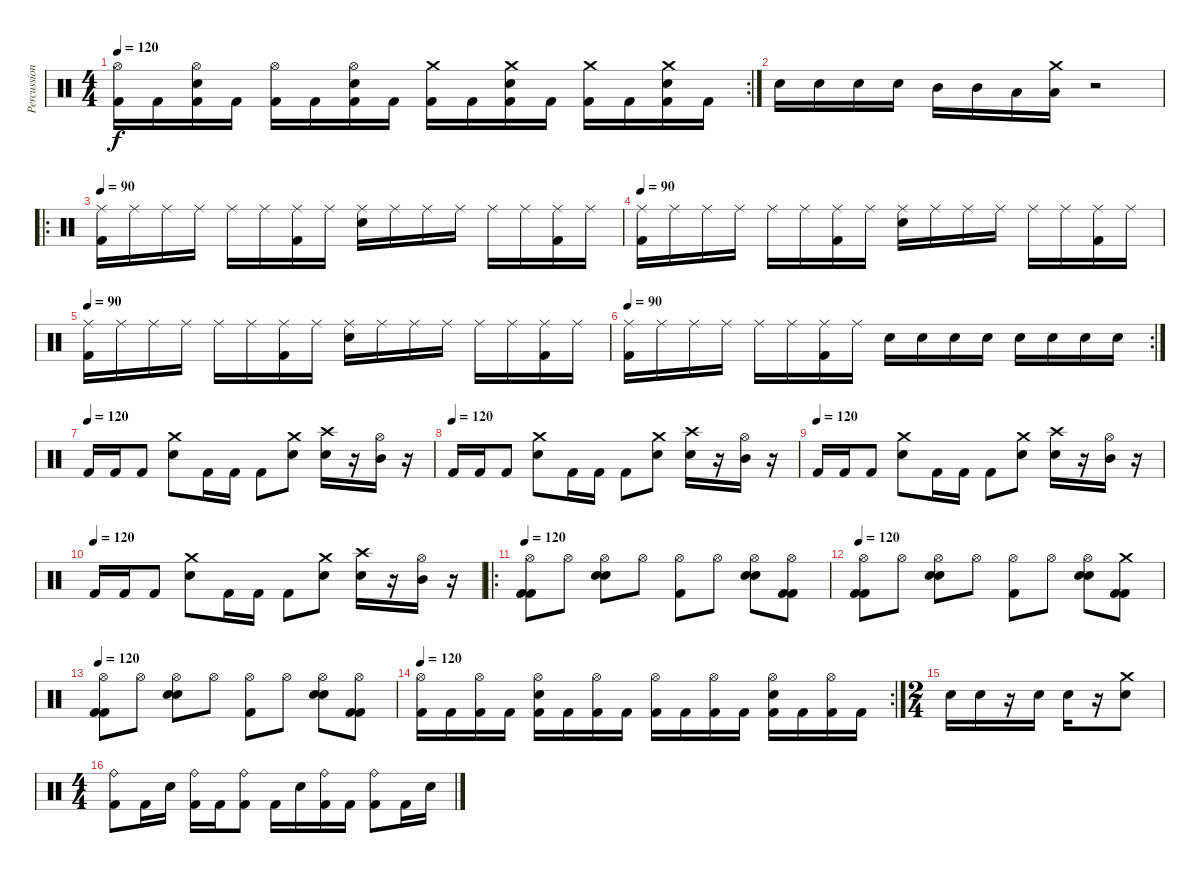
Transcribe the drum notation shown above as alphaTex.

\track ("Percussions" "Percussion") {instrument percussion}
\staff {score}
\articulation defaults
\rc 2
\ts (4 4)
\tempo 120
\clef neutral
\ks c
("Kick (hit) 2" "Hi-Hat (open)").16{dy f} "Kick (hit) 2".16 ("Kick (hit) 2" "Electric Snare (hit)" "Hi-Hat (open)").16 "Kick (hit) 2".16 ("Kick (hit) 2" "Hi-Hat (open)").16 "Kick (hit) 2".16 ("Kick (hit) 2" "Electric Snare (hit)" "Hi-Hat (open)").16 "Kick (hit) 2".16 ("Kick (hit) 2" "Crash medium (hit)").16 "Kick (hit) 2".16 ("Kick (hit) 2" "Electric Snare (hit)" "Crash medium (hit)").16 "Kick (hit) 2".16 ("Kick (hit) 2" "Crash medium (hit)").16 "Kick (hit) 2".16 ("Kick (hit) 2" "Electric Snare (hit)" "Crash medium (hit)").16 "Kick (hit) 2".16 |
"Electric Snare (hit)".16 "Electric Snare (hit)".16 "Snare (hit) 2".16 "Snare (hit) 2".16 "Mid Tom (hit)".16 "Mid Tom (hit)".16 "Low Tom (hit)".16 ("Low Tom (hit)" "Crash medium (hit)").16 r.2 |
\ro
\tempo 90
("Ride (middle)" "Kick (hit) 2").16 "Ride (middle)".16 "Ride (middle)".16 "Ride (middle)".16 "Ride (middle)".16 "Ride (middle)".16 ("Ride (middle)" "Kick (hit) 2").16 "Ride (middle)".16 ("Ride (middle)" "Electric Snare (hit)").16 "Ride (middle)".16 "Ride (middle)".16 "Ride (middle)".16 "Ride (middle)".16 "Ride (middle)".16 ("Ride (middle)" "Kick (hit) 2").16 "Ride (middle)".16 |
\tempo 90
("Ride (middle)" "Kick (hit) 2").16 "Ride (middle)".16 "Ride (middle)".16 "Ride (middle)".16 "Ride (middle)".16 "Ride (middle)".16 ("Ride (middle)" "Kick (hit) 2").16 "Ride (middle)".16 ("Ride (middle)" "Electric Snare (hit)").16 "Ride (middle)".16 "Ride (middle)".16 "Ride (middle)".16 "Ride (middle)".16 "Ride (middle)".16 ("Ride (middle)" "Kick (hit) 2").16 "Ride (middle)".16 |
\tempo 90
("Ride (middle)" "Kick (hit) 2").16 "Ride (middle)".16 "Ride (middle)".16 "Ride (middle)".16 "Ride (middle)".16 "Ride (middle)".16 ("Ride (middle)" "Kick (hit) 2").16 "Ride (middle)".16 ("Ride (middle)" "Electric Snare (hit)").16 "Ride (middle)".16 "Ride (middle)".16 "Ride (middle)".16 "Ride (middle)".16 "Ride (middle)".16 ("Ride (middle)" "Kick (hit) 2").16 "Ride (middle)".16 |
\rc 2
\tempo 90
("Ride (middle)" "Kick (hit) 2").16 "Ride (middle)".16 "Ride (middle)".16 "Ride (middle)".16 "Ride (middle)".16 "Ride (middle)".16 ("Ride (middle)" "Kick (hit) 2").16 "Ride (middle)".16 "Electric Snare (hit)".16 "Electric Snare (hit)".16 "Snare (hit) 2".16 "Snare (hit) 2".16 "Electric Snare (hit)".16 "Electric Snare (hit)".16 "Snare (hit) 2".16 "Snare (hit) 2".16 |
\tempo (120)
"Kick (hit) 2".16 "Kick (hit) 2".16 "Kick (hit) 2".8 ("Electric Snare (hit)" "Crash medium (hit)").8 "Kick (hit) 2".16 "Kick (hit) 2".16 "Kick (hit) 2".8 ("Electric Snare (hit)" "Crash medium (hit)").8 ("Snare (hit) 2" "Crash high (hit)").16 r.16 ("Mid Tom (hit)" "Hi-Hat (open)").16 r.16 |
\tempo (120)
"Kick (hit) 2".16 "Kick (hit) 2".16 "Kick (hit) 2".8 ("Electric Snare (hit)" "Crash medium (hit)").8 "Kick (hit) 2".16 "Kick (hit) 2".16 "Kick (hit) 2".8 ("Electric Snare (hit)" "Crash medium (hit)").8 ("Snare (hit) 2" "Crash high (hit)").16 r.16 ("Mid Tom (hit)" "Hi-Hat (open)").16 r.16 |
\tempo (120)
"Kick (hit) 2".16 "Kick (hit) 2".16 "Kick (hit) 2".8 ("Electric Snare (hit)" "Crash medium (hit)").8 "Kick (hit) 2".16 "Kick (hit) 2".16 "Kick (hit) 2".8 ("Electric Snare (hit)" "Crash medium (hit)").8 ("Snare (hit) 2" "Crash high (hit)").16 r.16 ("Mid Tom (hit)" "Hi-Hat (open)").16 r.16 |
\tempo (120)
"Kick (hit) 2".16 "Kick (hit) 2".16 "Kick (hit) 2".8 ("Electric Snare (hit)" "Crash medium (hit)").8 "Kick (hit) 2".16 "Kick (hit) 2".16 "Kick (hit) 2".8 ("Electric Snare (hit)" "Crash medium (hit)").8 ("Snare (hit) 2" "Crash high (hit)").16 r.16 ("Mid Tom (hit)" "Hi-Hat (open)").16 r.16 |
\ro
\tempo 120
("Hi-Hat (open)" "Kick (hit) 2" "Kick (hit) 2").8 "Hi-Hat (open)".8 ("Hi-Hat (open)" "Electric Snare (hit)" "Electric Snare (hit)").8 "Hi-Hat (open)".8 ("Hi-Hat (open)" "Kick (hit) 2").8 "Hi-Hat (open)".8 ("Hi-Hat (open)" "Electric Snare (hit)" "Electric Snare (hit)").8 ("Hi-Hat (open)" "Kick (hit) 2" "Kick (hit) 2").8 |
\tempo 120
("Hi-Hat (open)" "Kick (hit) 2" "Kick (hit) 2").8 "Hi-Hat (open)".8 ("Hi-Hat (open)" "Electric Snare (hit)" "Electric Snare (hit)").8 "Hi-Hat (open)".8 ("Hi-Hat (open)" "Kick (hit) 2").8 "Hi-Hat (open)".8 ("Hi-Hat (open)" "Electric Snare (hit)" "Electric Snare (hit)").8 ("Crash medium (hit)" "Kick (hit) 2" "Kick (hit) 2").8 |
\tempo 120
("Hi-Hat (open)" "Kick (hit) 2" "Kick (hit) 2").8 "Hi-Hat (open)".8 ("Hi-Hat (open)" "Electric Snare (hit)" "Electric Snare (hit)").8 "Hi-Hat (open)".8 ("Hi-Hat (open)" "Kick (hit) 2").8 "Hi-Hat (open)".8 ("Hi-Hat (open)" "Electric Snare (hit)" "Electric Snare (hit)").8 ("Hi-Hat (open)" "Kick (hit) 2" "Kick (hit) 2").8 |
\rc 2
\tempo 120
("Kick (hit) 2" "Hi-Hat (open)").16 "Kick (hit) 2".16 ("Kick (hit) 2" "Hi-Hat (open)").16 "Kick (hit) 2".16 ("Kick (hit) 2" "Electric Snare (hit)" "Hi-Hat (open)").16 "Kick (hit) 2".16 ("Kick (hit) 2" "Hi-Hat (open)").16 "Kick (hit) 2".16 ("Kick (hit) 2" "Hi-Hat (open)").16 "Kick (hit) 2".16 ("Kick (hit) 2" "Hi-Hat (open)").16 "Kick (hit) 2".16 ("Kick (hit) 2" "Electric Snare (hit)" "Hi-Hat (open)").16 "Kick (hit) 2".16 ("Kick (hit) 2" "Hi-Hat (open)").16 "Kick (hit) 2".16 |
\ts (2 4)
"Electric Snare (hit)".16 "Electric Snare (hit)".16 r.16 "Snare (hit) 2".16 "Snare (hit) 2".16 r.16 ("Crash medium (hit)" "Electric Snare (hit)").8 |
\ts (4 4)
("Kick (hit) 2" "Ride (bell)").8 "Kick (hit) 2".16 "Electric Snare (hit)".16 ("Kick (hit) 2" "Ride (bell)").16 "Kick (hit) 2".16 ("Kick (hit) 2" "Ride (bell)").8 "Kick (hit) 2".16 "Electric Snare (hit)".16 ("Kick (hit) 2" "Ride (bell)").16 "Kick (hit) 2".16 ("Kick (hit) 2" "Ride (bell)").8 "Kick (hit) 2".16 "Electric Snare (hit)".16
